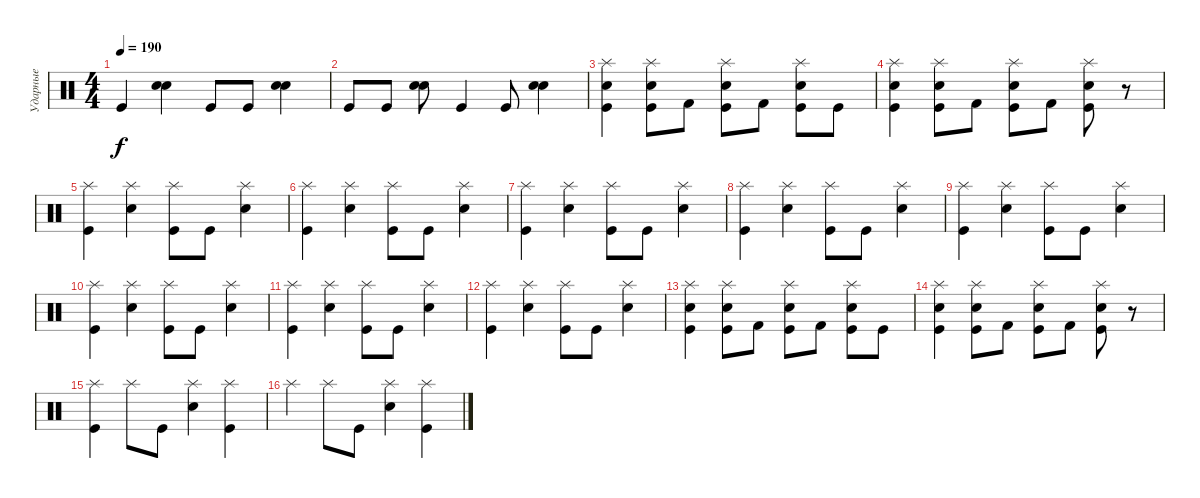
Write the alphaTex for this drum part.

\track ("Ударные" "Ударные") {instrument percussion}
\staff {score}
\articulation defaults
\ts (4 4)
\tempo 190
\clef neutral
\ks c "Kick (hit)".4{dy f}
("Snare (hit) 2" "Electric Snare (hit)").4 "Kick (hit)".8 "Kick (hit)".8 ("Snare (hit) 2" "Electric Snare (hit)").4 |
"Kick (hit)".8 "Kick (hit)".8 ("Snare (hit) 2" "Electric Snare (hit)").8 "Kick (hit)".4 "Kick (hit)".8 ("Snare (hit) 2" "Electric Snare (hit)").4 |
("Splash (hit)" "Electric Snare (hit)" "Kick (hit)").4 ("Splash (hit)" "Electric Snare (hit)" "Kick (hit)").8 "Kick (hit) 2".8 ("Splash (hit)" "Electric Snare (hit)" "Kick (hit)").8 "Kick (hit) 2".8 ("Splash (hit)" "Electric Snare (hit)" "Kick (hit)").8 "Kick (hit)".8 |
("Splash (hit)" "Electric Snare (hit)" "Kick (hit)").4 ("Splash (hit)" "Electric Snare (hit)" "Kick (hit)").8 "Kick (hit) 2".8 ("Splash (hit)" "Electric Snare (hit)" "Kick (hit)").8 "Kick (hit) 2".8 ("Splash (hit)" "Electric Snare (hit)" "Kick (hit)").8 r.8 |
("Splash (hit)" "Kick (hit)").4 ("Splash (hit)" "Electric Snare (hit)").4 ("Splash (hit)" "Kick (hit)").8 "Kick (hit)".8 ("Splash (hit)" "Electric Snare (hit)").4 |
("Splash (hit)" "Kick (hit)").4 ("Splash (hit)" "Electric Snare (hit)").4 ("Splash (hit)" "Kick (hit)").8 "Kick (hit)".8 ("Splash (hit)" "Electric Snare (hit)").4 |
("Splash (hit)" "Kick (hit)").4 ("Splash (hit)" "Electric Snare (hit)").4 ("Splash (hit)" "Kick (hit)").8 "Kick (hit)".8 ("Splash (hit)" "Electric Snare (hit)").4 |
("Splash (hit)" "Kick (hit)").4 ("Splash (hit)" "Electric Snare (hit)").4 ("Splash (hit)" "Kick (hit)").8 "Kick (hit)".8 ("Splash (hit)" "Electric Snare (hit)").4 |
("Splash (hit)" "Kick (hit)").4 ("Splash (hit)" "Electric Snare (hit)").4 ("Splash (hit)" "Kick (hit)").8 "Kick (hit)".8 ("Splash (hit)" "Electric Snare (hit)").4 |
("Splash (hit)" "Kick (hit)").4 ("Splash (hit)" "Electric Snare (hit)").4 ("Splash (hit)" "Kick (hit)").8 "Kick (hit)".8 ("Splash (hit)" "Electric Snare (hit)").4 |
("Splash (hit)" "Kick (hit)").4 ("Splash (hit)" "Electric Snare (hit)").4 ("Splash (hit)" "Kick (hit)").8 "Kick (hit)".8 ("Splash (hit)" "Electric Snare (hit)").4 |
("Splash (hit)" "Kick (hit)").4 ("Splash (hit)" "Electric Snare (hit)").4 ("Splash (hit)" "Kick (hit)").8 "Kick (hit)".8 ("Splash (hit)" "Electric Snare (hit)").4 |
("Splash (hit)" "Electric Snare (hit)" "Kick (hit)").4 ("Splash (hit)" "Electric Snare (hit)" "Kick (hit)").8 "Kick (hit) 2".8 ("Splash (hit)" "Electric Snare (hit)" "Kick (hit)").8 "Kick (hit) 2".8 ("Splash (hit)" "Electric Snare (hit)" "Kick (hit)").8 "Kick (hit)".8 |
("Splash (hit)" "Electric Snare (hit)" "Kick (hit)").4 ("Splash (hit)" "Electric Snare (hit)" "Kick (hit)").8 "Kick (hit) 2".8 ("Splash (hit)" "Electric Snare (hit)" "Kick (hit)").8 "Kick (hit) 2".8 ("Splash (hit)" "Electric Snare (hit)" "Kick (hit)").8 r.8 |
("Splash (hit)" "Kick (hit)").4 "Splash (hit)".8 "Kick (hit)".8 ("Splash (hit)" "Electric Snare (hit)").4 ("Splash (hit)" "Kick (hit)").4 |
"Splash (hit)".4 "Splash (hit)".8 "Kick (hit)".8 ("Splash (hit)" "Electric Snare (hit)").4 ("Splash (hit)" "Kick (hit)").4
